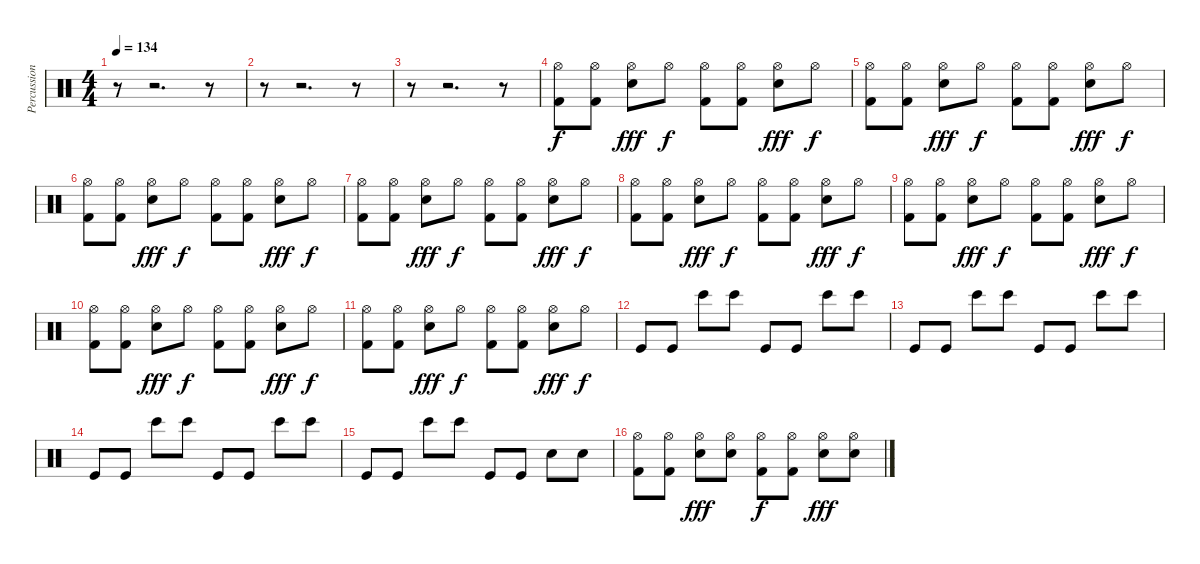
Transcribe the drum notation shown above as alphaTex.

\track ("Percussion" "Percussion") {instrument percussion}
\staff {score}
\articulation defaults
\ts (4 4)
\tempo 134
\clef neutral
\ks c
r.8{dy f} r.2{d} r.8 |
r.8 r.2{d} r.8 |
r.8 r.2{d} r.8 |
("Hi-Hat (open)" "Kick (hit) 2").8 ("Hi-Hat (open)" "Kick (hit) 2").8 ("Hi-Hat (open)" "Snare (hit) 2").8{dy fff} "Hi-Hat (open)".8{dy f} ("Hi-Hat (open)" "Kick (hit) 2").8 ("Hi-Hat (open)" "Kick (hit) 2").8 ("Hi-Hat (open)" "Snare (hit) 2").8{dy fff} "Hi-Hat (open)".8{dy f} |
("Hi-Hat (open)" "Kick (hit) 2").8 ("Hi-Hat (open)" "Kick (hit) 2").8 ("Hi-Hat (open)" "Snare (hit) 2").8{dy fff} "Hi-Hat (open)".8{dy f} ("Hi-Hat (open)" "Kick (hit) 2").8 ("Hi-Hat (open)" "Kick (hit) 2").8 ("Hi-Hat (open)" "Snare (hit) 2").8{dy fff} "Hi-Hat (open)".8{dy f} |
("Hi-Hat (open)" "Kick (hit) 2").8 ("Hi-Hat (open)" "Kick (hit) 2").8 ("Hi-Hat (open)" "Snare (hit) 2").8{dy fff} "Hi-Hat (open)".8{dy f} ("Hi-Hat (open)" "Kick (hit) 2").8 ("Hi-Hat (open)" "Kick (hit) 2").8 ("Hi-Hat (open)" "Snare (hit) 2").8{dy fff} "Hi-Hat (open)".8{dy f} |
("Hi-Hat (open)" "Kick (hit) 2").8 ("Hi-Hat (open)" "Kick (hit) 2").8 ("Hi-Hat (open)" "Snare (hit) 2").8{dy fff} "Hi-Hat (open)".8{dy f} ("Hi-Hat (open)" "Kick (hit) 2").8 ("Hi-Hat (open)" "Kick (hit) 2").8 ("Hi-Hat (open)" "Snare (hit) 2").8{dy fff} "Hi-Hat (open)".8{dy f} |
("Hi-Hat (open)" "Kick (hit) 2").8 ("Hi-Hat (open)" "Kick (hit) 2").8 ("Hi-Hat (open)" "Snare (hit) 2").8{dy fff} "Hi-Hat (open)".8{dy f} ("Hi-Hat (open)" "Kick (hit) 2").8 ("Hi-Hat (open)" "Kick (hit) 2").8 ("Hi-Hat (open)" "Snare (hit) 2").8{dy fff} "Hi-Hat (open)".8{dy f} |
("Hi-Hat (open)" "Kick (hit) 2").8 ("Hi-Hat (open)" "Kick (hit) 2").8 ("Hi-Hat (open)" "Snare (hit) 2").8{dy fff} "Hi-Hat (open)".8{dy f} ("Hi-Hat (open)" "Kick (hit) 2").8 ("Hi-Hat (open)" "Kick (hit) 2").8 ("Hi-Hat (open)" "Snare (hit) 2").8{dy fff} "Hi-Hat (open)".8{dy f} |
("Hi-Hat (open)" "Kick (hit) 2").8 ("Hi-Hat (open)" "Kick (hit) 2").8 ("Hi-Hat (open)" "Snare (hit) 2").8{dy fff} "Hi-Hat (open)".8{dy f} ("Hi-Hat (open)" "Kick (hit) 2").8 ("Hi-Hat (open)" "Kick (hit) 2").8 ("Hi-Hat (open)" "Snare (hit) 2").8{dy fff} "Hi-Hat (open)".8{dy f} |
("Hi-Hat (open)" "Kick (hit) 2").8 ("Hi-Hat (open)" "Kick (hit) 2").8 ("Hi-Hat (open)" "Snare (hit) 2").8{dy fff} "Hi-Hat (open)".8{dy f} ("Hi-Hat (open)" "Kick (hit) 2").8 ("Hi-Hat (open)" "Kick (hit) 2").8 ("Hi-Hat (open)" "Snare (hit) 2").8{dy fff} "Hi-Hat (open)".8{dy f} |
"Kick (hit)".8 "Kick (hit)".8 "Bongo High (hit)".8 "Bongo High (hit)".8 "Kick (hit)".8 "Kick (hit)".8 "Bongo High (hit)".8 "Bongo High (hit)".8 |
"Kick (hit)".8 "Kick (hit)".8 "Bongo High (hit)".8 "Bongo High (hit)".8 "Kick (hit)".8 "Kick (hit)".8 "Bongo High (hit)".8 "Bongo High (hit)".8 |
"Kick (hit)".8 "Kick (hit)".8 "Bongo High (hit)".8 "Bongo High (hit)".8 "Kick (hit)".8 "Kick (hit)".8 "Bongo High (hit)".8 "Bongo High (hit)".8 |
"Kick (hit)".8 "Kick (hit)".8 "Bongo High (hit)".8 "Bongo High (hit)".8 "Kick (hit)".8 "Kick (hit)".8 "Snare (hit) 2".8 "Snare (hit) 2".8 |
("Hi-Hat (open)" "Kick (hit) 2").8 ("Hi-Hat (open)" "Kick (hit) 2").8 ("Hi-Hat (open)" "Snare (hit) 2").8{dy fff} ("Hi-Hat (open)" "Snare (hit) 2").8 ("Hi-Hat (open)" "Kick (hit) 2").8{dy f} ("Hi-Hat (open)" "Kick (hit) 2").8 ("Hi-Hat (open)" "Snare (hit) 2").8{dy fff} ("Hi-Hat (open)" "Snare (hit) 2").8
